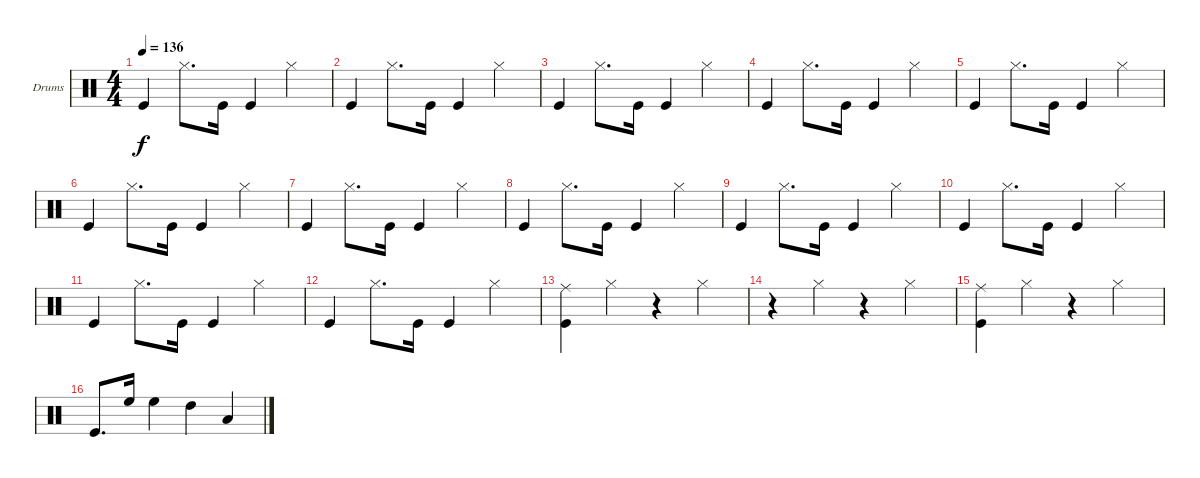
\defaultSystemsLayout 4
\bracketExtendMode groupsimilarinstruments
\firstSystemTrackNameOrientation horizontal
\otherSystemsTrackNameOrientation horizontal
\track ("Drumkit" "Drums") {instrument percussion}
\staff {score}
\articulation defaults
\ts (4 4)
\tempo 136
\clef neutral
\ks c "Kick (hit)".4{dy f} "Hi-Hat (closed)".8{d} "Kick (hit)".16 "Kick (hit)".4 "Hi-Hat (closed)".4
|
"Kick (hit)".4 "Hi-Hat (closed)".8{d} "Kick (hit)".16 "Kick (hit)".4 "Hi-Hat (closed)".4 |
"Kick (hit)".4 "Hi-Hat (closed)".8{d} "Kick (hit)".16 "Kick (hit)".4 "Hi-Hat (closed)".4 |
"Kick (hit)".4 "Hi-Hat (closed)".8{d} "Kick (hit)".16 "Kick (hit)".4 "Hi-Hat (closed)".4 |
"Kick (hit)".4 "Hi-Hat (closed)".8{d} "Kick (hit)".16 "Kick (hit)".4 "Hi-Hat (closed)".4 |
"Kick (hit)".4 "Hi-Hat (closed)".8{d} "Kick (hit)".16 "Kick (hit)".4 "Hi-Hat (closed)".4 |
"Kick (hit)".4 "Hi-Hat (closed)".8{d} "Kick (hit)".16 "Kick (hit)".4 "Hi-Hat (closed)".4 |
"Kick (hit)".4 "Hi-Hat (closed)".8{d} "Kick (hit)".16 "Kick (hit)".4 "Hi-Hat (closed)".4 |
"Kick (hit)".4 "Hi-Hat (closed)".8{d} "Kick (hit)".16 "Kick (hit)".4 "Hi-Hat (closed)".4 |
"Kick (hit)".4 "Hi-Hat (closed)".8{d} "Kick (hit)".16 "Kick (hit)".4 "Hi-Hat (closed)".4 |
\scale
0.340617 "Kick (hit)".4 "Hi-Hat (closed)".8{d} "Kick (hit)".16 "Kick (hit)".4 "Hi-Hat (closed)".4 |
\scale
0.404438 "Kick (hit)".4 "Hi-Hat (closed)".8{d} "Kick (hit)".16 "Kick (hit)".4 "Hi-Hat (closed)".4 |
\scale
0.253624 ("Ride (middle)" "Kick (hit)").4 "Hi-Hat (closed)".4 r.4 "Hi-Hat (closed)".4 |
\scale
0.418486 r.4 "Hi-Hat (closed)".4 r.4 "Hi-Hat (closed)".4 |
\scale
0.263496 ("Ride (middle)" "Kick (hit)").4 "Hi-Hat (closed)".4 r.4 "Hi-Hat (closed)".4 |
\scale
0.316383 "Kick (hit)".8{d} "High Floor Tom (hit)".16 "High Floor Tom (hit)".4 "High Tom (hit)".4 "Low Tom (hit)".4
